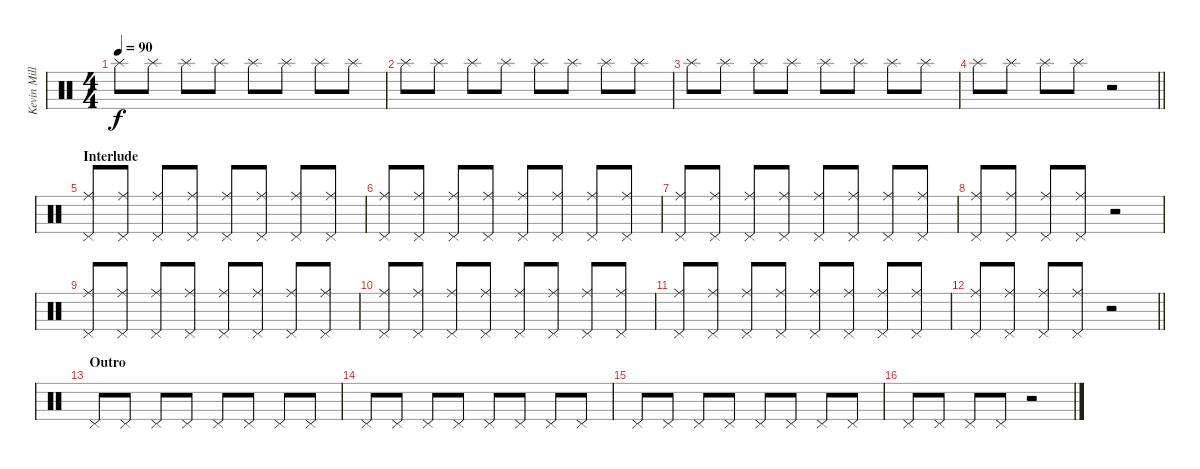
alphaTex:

\track ("Kevin Miller (Drums)" "Kevin Mill") {instrument percussion}
\staff {score}
\articulation defaults
\ts (4 4)
\tempo 90
\clef neutral
\ks c "Splash (hit)".8{dy f} "Splash (hit)".8 "Splash (hit)".8 "Splash (hit)".8 "Splash (hit)".8 "Splash (hit)".8 "Splash (hit)".8 "Splash (hit)".8
|
"Splash (hit)".8 "Splash (hit)".8 "Splash (hit)".8 "Splash (hit)".8 "Splash (hit)".8 "Splash (hit)".8 "Splash (hit)".8 "Splash (hit)".8 |
"Splash (hit)".8 "Splash (hit)".8 "Splash (hit)".8 "Splash (hit)".8 "Splash (hit)".8 "Splash (hit)".8 "Splash (hit)".8 "Splash (hit)".8 |
\barLineRight lightlight "Splash (hit)".8 "Splash (hit)".8 "Splash (hit)".8 "Splash (hit)".8
r.2 |
\section ("" "Interlude")
("Ride (middle)" "Pedal Hi-Hat (hit)").8 ("Ride (middle)" "Pedal Hi-Hat (hit)").8 ("Ride (middle)" "Pedal Hi-Hat (hit)").8 ("Ride (middle)" "Pedal Hi-Hat (hit)").8 ("Ride (middle)" "Pedal Hi-Hat (hit)").8 ("Ride (middle)" "Pedal Hi-Hat (hit)").8 ("Ride (middle)" "Pedal Hi-Hat (hit)").8 ("Ride (middle)" "Pedal Hi-Hat (hit)").8 |
("Ride (middle)" "Pedal Hi-Hat (hit)").8 ("Ride (middle)" "Pedal Hi-Hat (hit)").8 ("Ride (middle)" "Pedal Hi-Hat (hit)").8 ("Ride (middle)" "Pedal Hi-Hat (hit)").8 ("Ride (middle)" "Pedal Hi-Hat (hit)").8 ("Ride (middle)" "Pedal Hi-Hat (hit)").8 ("Ride (middle)" "Pedal Hi-Hat (hit)").8 ("Ride (middle)" "Pedal Hi-Hat (hit)").8 |
("Ride (middle)" "Pedal Hi-Hat (hit)").8 ("Ride (middle)" "Pedal Hi-Hat (hit)").8 ("Ride (middle)" "Pedal Hi-Hat (hit)").8 ("Ride (middle)" "Pedal Hi-Hat (hit)").8 ("Ride (middle)" "Pedal Hi-Hat (hit)").8 ("Ride (middle)" "Pedal Hi-Hat (hit)").8 ("Ride (middle)" "Pedal Hi-Hat (hit)").8 ("Ride (middle)" "Pedal Hi-Hat (hit)").8 |
("Ride (middle)" "Pedal Hi-Hat (hit)").8 ("Ride (middle)" "Pedal Hi-Hat (hit)").8 ("Ride (middle)" "Pedal Hi-Hat (hit)").8 ("Ride (middle)" "Pedal Hi-Hat (hit)").8 r.2 |
("Ride (middle)" "Pedal Hi-Hat (hit)").8 ("Ride (middle)" "Pedal Hi-Hat (hit)").8 ("Ride (middle)" "Pedal Hi-Hat (hit)").8 ("Ride (middle)" "Pedal Hi-Hat (hit)").8 ("Ride (middle)" "Pedal Hi-Hat (hit)").8 ("Ride (middle)" "Pedal Hi-Hat (hit)").8 ("Ride (middle)" "Pedal Hi-Hat (hit)").8 ("Ride (middle)" "Pedal Hi-Hat (hit)").8 |
("Ride (middle)" "Pedal Hi-Hat (hit)").8 ("Ride (middle)" "Pedal Hi-Hat (hit)").8 ("Ride (middle)" "Pedal Hi-Hat (hit)").8 ("Ride (middle)" "Pedal Hi-Hat (hit)").8 ("Ride (middle)" "Pedal Hi-Hat (hit)").8 ("Ride (middle)" "Pedal Hi-Hat (hit)").8 ("Ride (middle)" "Pedal Hi-Hat (hit)").8 ("Ride (middle)" "Pedal Hi-Hat (hit)").8 |
("Ride (middle)" "Pedal Hi-Hat (hit)").8 ("Ride (middle)" "Pedal Hi-Hat (hit)").8 ("Ride (middle)" "Pedal Hi-Hat (hit)").8 ("Ride (middle)" "Pedal Hi-Hat (hit)").8 ("Ride (middle)" "Pedal Hi-Hat (hit)").8 ("Ride (middle)" "Pedal Hi-Hat (hit)").8 ("Ride (middle)" "Pedal Hi-Hat (hit)").8 ("Ride (middle)" "Pedal Hi-Hat (hit)").8 |
\barLineRight lightlight
("Ride (middle)" "Pedal Hi-Hat (hit)").8 ("Ride (middle)" "Pedal Hi-Hat (hit)").8 ("Ride (middle)" "Pedal Hi-Hat (hit)").8 ("Ride (middle)" "Pedal Hi-Hat (hit)").8 r.2 |
\section ("" "Outro")
"Pedal Hi-Hat (hit)".8 "Pedal Hi-Hat (hit)".8 "Pedal Hi-Hat (hit)".8 "Pedal Hi-Hat (hit)".8 "Pedal Hi-Hat (hit)".8 "Pedal Hi-Hat (hit)".8 "Pedal Hi-Hat (hit)".8 "Pedal Hi-Hat (hit)".8 |
"Pedal Hi-Hat (hit)".8 "Pedal Hi-Hat (hit)".8 "Pedal Hi-Hat (hit)".8 "Pedal Hi-Hat (hit)".8 "Pedal Hi-Hat (hit)".8 "Pedal Hi-Hat (hit)".8 "Pedal Hi-Hat (hit)".8 "Pedal Hi-Hat (hit)".8 |
"Pedal Hi-Hat (hit)".8 "Pedal Hi-Hat (hit)".8 "Pedal Hi-Hat (hit)".8 "Pedal Hi-Hat (hit)".8 "Pedal Hi-Hat (hit)".8 "Pedal Hi-Hat (hit)".8 "Pedal Hi-Hat (hit)".8 "Pedal Hi-Hat (hit)".8 |
"Pedal Hi-Hat (hit)".8 "Pedal Hi-Hat (hit)".8 "Pedal Hi-Hat (hit)".8 "Pedal Hi-Hat (hit)".8 r.2
